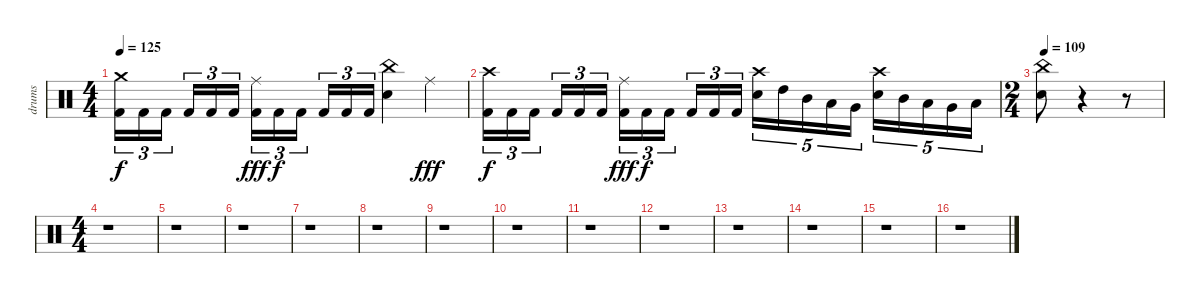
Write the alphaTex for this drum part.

\track ("drums" "drums") {instrument percussion}
\staff {score}
\articulation defaults
\ts (4 4)
\tempo 125
\clef neutral
\ks c
("Kick (hit) 2" "Crash medium (hit)").16{tu (3 2) dy f} "Kick (hit) 2".16{tu (3 2)} "Kick (hit) 2".16{tu (3 2)} "Kick (hit) 2".16{tu (3 2)} "Kick (hit) 2".16{tu (3 2)} "Kick (hit) 2".16{tu (3 2)} ("Kick (hit) 2" "Ride (middle)").16{tu (3 2) dy fff} "Kick (hit) 2".16{tu (3 2) dy f} "Kick (hit) 2".16{tu (3 2)} "Kick (hit) 2".16{tu (3 2)} "Kick (hit) 2".16{tu (3 2)} "Kick (hit) 2".16{tu (3 2)} ("Snare (hit) 2" "China (hit)").4 "Ride (middle)".4{dy fff} |
("Kick (hit) 2" "Crash high (hit)").16{tu (3 2) dy f} "Kick (hit) 2".16{tu (3 2)} "Kick (hit) 2".16{tu (3 2)} "Kick (hit) 2".16{tu (3 2)} "Kick (hit) 2".16{tu (3 2)} "Kick (hit) 2".16{tu (3 2)} ("Kick (hit) 2" "Ride (middle)").16{tu (3 2) dy fff} "Kick (hit) 2".16{tu (3 2) dy f} "Kick (hit) 2".16{tu (3 2)} "Kick (hit) 2".16{tu (3 2)} "Kick (hit) 2".16{tu (3 2)} "Kick (hit) 2".16{tu (3 2)} ("Crash high (hit)" "Snare (hit) 2").16{tu (5 4)} "High Tom (hit)".16{tu (5 4)} "Mid Tom (hit)".16{tu (5 4)} "Low Tom (hit)".16{tu (5 4)} "Very Low Tom (hit)".16{tu (5 4)} ("Crash high (hit)" "Snare (hit) 2").16{tu (5 4)} "Mid Tom (hit)".16{tu (5 4)} "Low Tom (hit)".16{tu (5 4)} "Very Low Tom (hit)".16{tu (5 4)} "Low Floor Tom (hit)".16{tu (5 4)} |
\ts (2 4)
\tempo 109
("China (hit)" "Snare (hit) 2").8 r.4 r.8 |
\ts (4 4)
r.1 |
r.1 |
r.1 |
r.1 |
r.1 |
r.1 |
r.1 |
r.1 |
r.1 |
r.1 |
r.1 |
r.1 |
r.1
